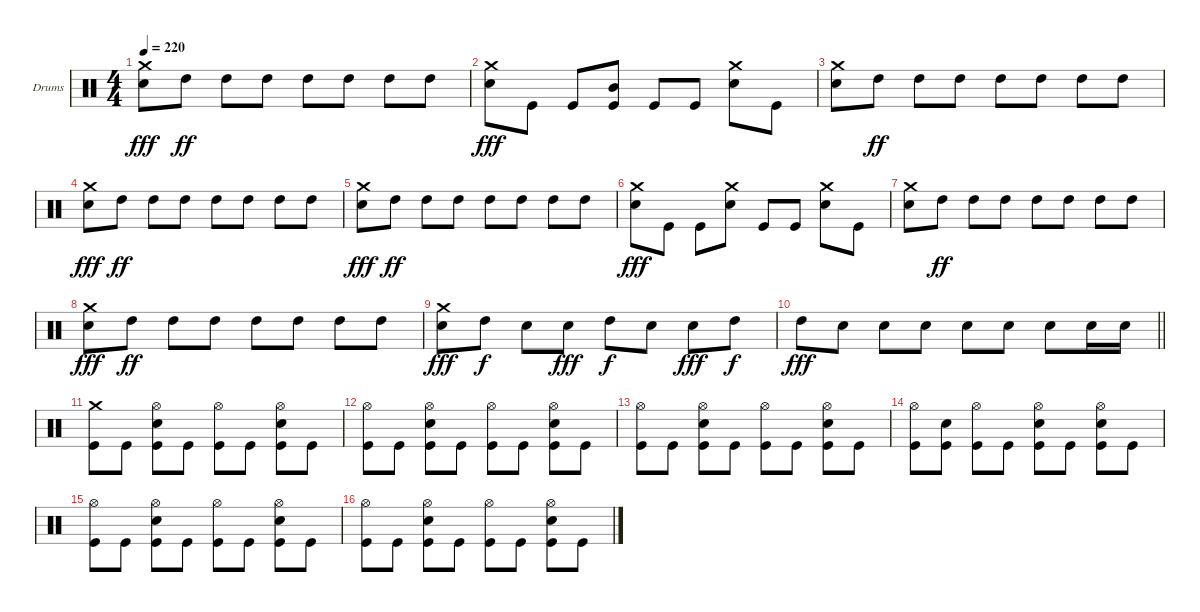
\bracketExtendMode groupsimilarinstruments
\firstSystemTrackNameOrientation horizontal
\otherSystemsTrackNameOrientation horizontal
\track ("Stefan Schwarzmann" "Drums") {instrument percussion}
\staff {score}
\articulation defaults
\ts (4 4)
\tempo 220
\clef neutral
\ks c
("Snare (hit) 2" "Crash medium (hit)").8{dy fff} "High Tom (hit)".8{dy ff} "High Tom (hit)".8 "High Tom (hit)".8 "High Tom (hit)".8 "High Tom (hit)".8 "High Tom (hit)".8 "High Tom (hit)".8 |
("Snare (hit) 2" "Crash medium (hit)").8{dy fff} "Kick (hit)".8 "Kick (hit)".8 ("Kick (hit)" "Mid Tom (hit)").8 "Kick (hit)".8 "Kick (hit)".8 ("Snare (hit) 2" "Crash medium (hit)").8 "Kick (hit)".8 |
("Snare (hit) 2" "Crash medium (hit)").8 "High Tom (hit)".8{dy ff} "High Tom (hit)".8 "High Tom (hit)".8 "High Tom (hit)".8 "High Tom (hit)".8 "High Tom (hit)".8 "High Tom (hit)".8 |
("Snare (hit) 2" "Crash medium (hit)").8{dy fff} "High Tom (hit)".8{dy ff} "High Tom (hit)".8 "High Tom (hit)".8 "High Tom (hit)".8 "High Tom (hit)".8 "High Tom (hit)".8 "High Tom (hit)".8 |
("Snare (hit) 2" "Crash medium (hit)").8{dy fff} "High Tom (hit)".8{dy ff} "High Tom (hit)".8 "High Tom (hit)".8 "High Tom (hit)".8 "High Tom (hit)".8 "High Tom (hit)".8 "High Tom (hit)".8 |
("Snare (hit) 2" "Crash medium (hit)").8{dy fff} "Kick (hit)".8 "Kick (hit)".8 ("Snare (hit) 2" "Crash medium (hit)").8 "Kick (hit)".8 "Kick (hit)".8 ("Snare (hit) 2" "Crash medium (hit)").8 "Kick (hit)".8 |
("Snare (hit) 2" "Crash medium (hit)").8 "High Tom (hit)".8{dy ff} "High Tom (hit)".8 "High Tom (hit)".8 "High Tom (hit)".8 "High Tom (hit)".8 "High Tom (hit)".8 "High Tom (hit)".8 |
("Snare (hit) 2" "Crash medium (hit)").8{dy fff} "High Tom (hit)".8{dy ff} "High Tom (hit)".8 "High Tom (hit)".8 "High Tom (hit)".8 "High Tom (hit)".8 "High Tom (hit)".8 "High Tom (hit)".8 |
("Snare (hit) 2" "Crash medium (hit)").8{dy fff} "High Tom (hit)".8{dy f} "Snare (hit) 2".8 "Snare (hit) 2".8{dy fff} "High Tom (hit)".8{dy f} "Snare (hit) 2".8 "Snare (hit) 2".8{dy fff} "High Tom (hit)".8{dy f} |
\barLineRight lightlight "High Tom (hit)".8{dy fff} "Snare (hit) 2".8 "Snare (hit) 2".8 "Snare (hit) 2".8 "Snare (hit) 2".8 "Snare (hit) 2".8 "Snare (hit) 2".8 "Snare (hit) 2".16 "Snare (hit) 2".16
|
("Kick (hit)" "Crash medium (hit)").8 "Kick (hit)".8 ("Kick (hit)" "Snare (hit) 2" "Hi-Hat (open)").8 "Kick (hit)".8 ("Kick (hit)" "Hi-Hat (open)").8 "Kick (hit)".8 ("Kick (hit)" "Snare (hit) 2" "Hi-Hat (open)").8 "Kick (hit)".8 |
("Kick (hit)" "Hi-Hat (open)").8 "Kick (hit)".8 ("Kick (hit)" "Snare (hit) 2" "Hi-Hat (open)").8 "Kick (hit)".8 ("Kick (hit)" "Hi-Hat (open)").8 "Kick (hit)".8 ("Kick (hit)" "Snare (hit) 2" "Hi-Hat (open)").8 "Kick (hit)".8 |
("Kick (hit)" "Hi-Hat (open)").8 "Kick (hit)".8 ("Kick (hit)" "Snare (hit) 2" "Hi-Hat (open)").8 "Kick (hit)".8 ("Kick (hit)" "Hi-Hat (open)").8 "Kick (hit)".8 ("Kick (hit)" "Snare (hit) 2" "Hi-Hat (open)").8 "Kick (hit)".8 |
("Kick (hit)" "Hi-Hat (open)").8 ("Kick (hit)" "Snare (hit) 2").8 ("Kick (hit)" "Hi-Hat (open)").8 "Kick (hit)".8 ("Kick (hit)" "Snare (hit) 2" "Hi-Hat (open)").8 "Kick (hit)".8 ("Kick (hit)" "Snare (hit) 2" "Hi-Hat (open)").8 "Kick (hit)".8 |
("Kick (hit)" "Hi-Hat (open)").8 "Kick (hit)".8 ("Kick (hit)" "Snare (hit) 2" "Hi-Hat (open)").8 "Kick (hit)".8 ("Kick (hit)" "Hi-Hat (open)").8 "Kick (hit)".8 ("Kick (hit)" "Snare (hit) 2" "Hi-Hat (open)").8 "Kick (hit)".8 |
("Kick (hit)" "Hi-Hat (open)").8 "Kick (hit)".8 ("Kick (hit)" "Snare (hit) 2" "Hi-Hat (open)").8 "Kick (hit)".8 ("Kick (hit)" "Hi-Hat (open)").8 "Kick (hit)".8 ("Kick (hit)" "Snare (hit) 2" "Hi-Hat (open)").8 "Kick (hit)".8
